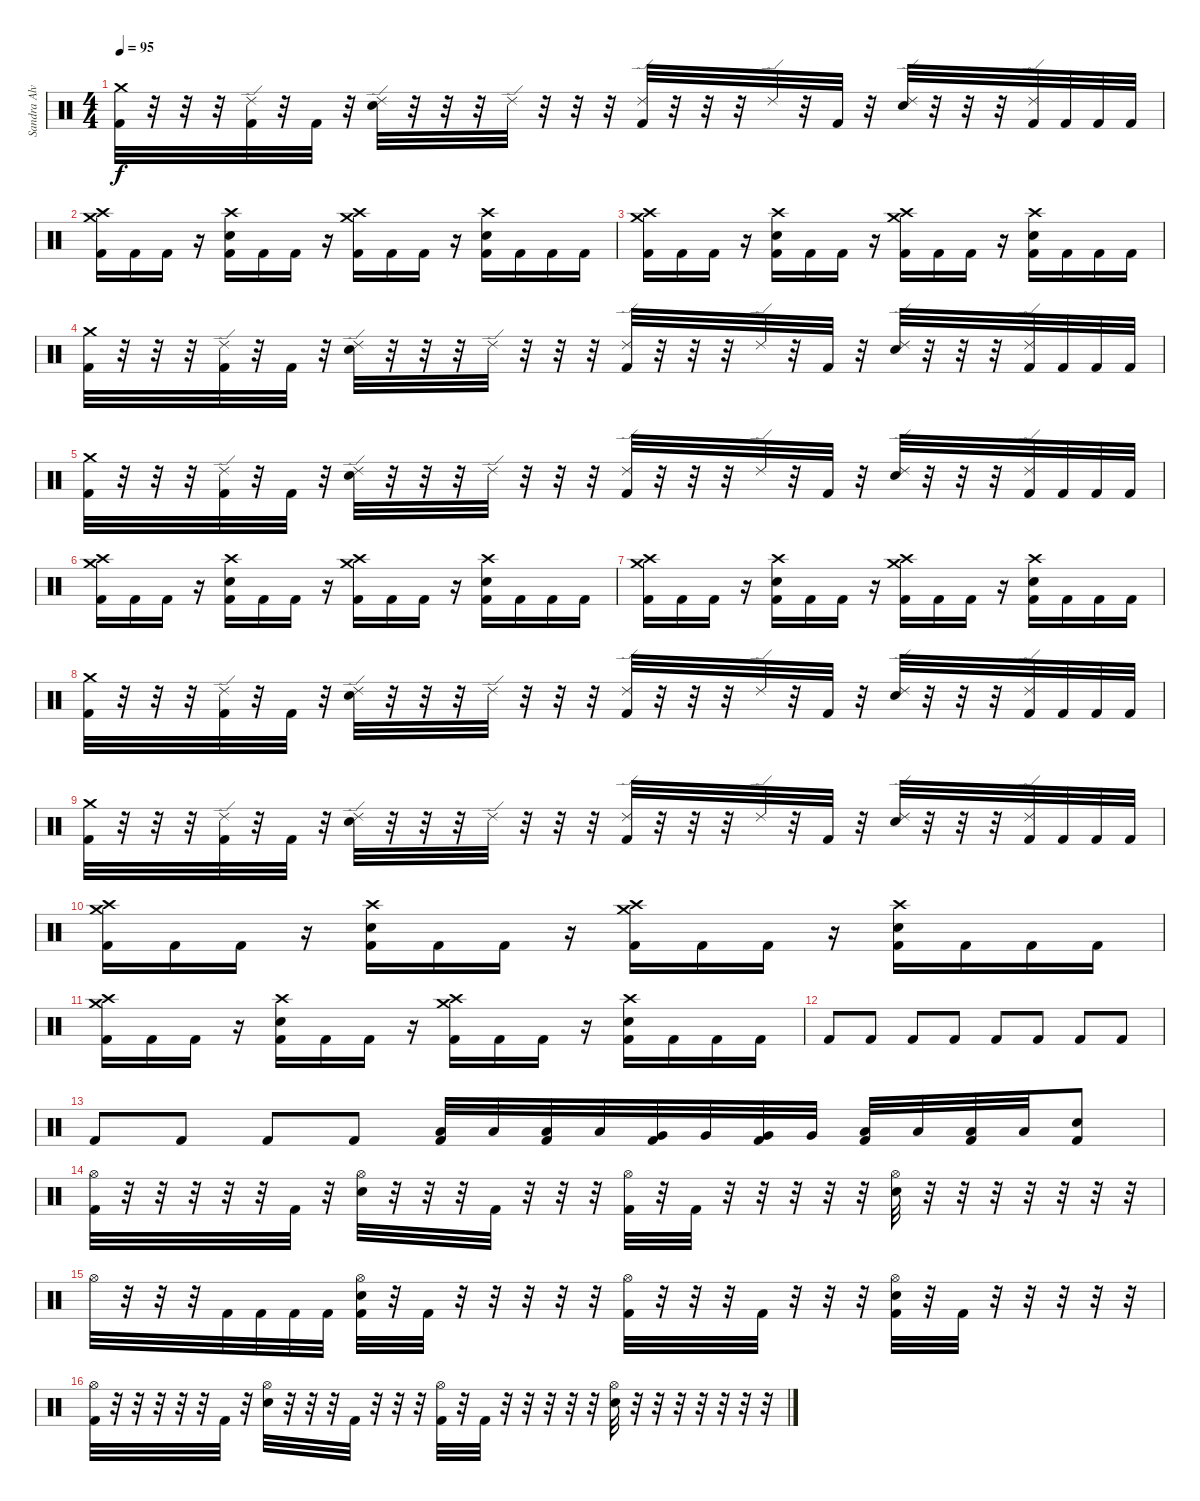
\track ("Sandra Alvarenga" "Sandra Alv") {instrument percussion}
\staff
\articulation defaults
\ts (4 4)
\tempo 95
\clef neutral
\ks c
("Crash medium (hit)" "Kick (hit) 2").32{dy f} r.32 r.32 r.32 ("Ride (edge) 2" "Kick (hit) 2").32 r.32 "Kick (hit) 2".32 r.32 ("Ride (edge) 2" "Electric Snare (hit)").32 r.32 r.32 r.32 "Ride (edge) 2".32 r.32 r.32 r.32 ("Ride (edge) 2" "Kick (hit) 2").32 r.32 r.32 r.32 "Ride (edge) 2".32 r.32 "Kick (hit) 2".32 r.32 ("Ride (edge) 2" "Electric Snare (hit)").32 r.32 r.32 r.32 ("Ride (edge) 2" "Kick (hit) 2").32 "Kick (hit) 2".32 "Kick (hit) 2".32 "Kick (hit) 2".32 |
("Crash medium (hit)" "Crash high (hit)" "Kick (hit) 2").16 "Kick (hit) 2".16 "Kick (hit) 2".16 r.16 ("Crash high (hit)" "Electric Snare (hit)" "Kick (hit) 2").16 "Kick (hit) 2".16 "Kick (hit) 2".16 r.16 ("Crash medium (hit)" "Crash high (hit)" "Kick (hit) 2").16 "Kick (hit) 2".16 "Kick (hit) 2".16 r.16 ("Crash high (hit)" "Electric Snare (hit)" "Kick (hit) 2").16 "Kick (hit) 2".16 "Kick (hit) 2".16 "Kick (hit) 2".16 |
("Crash medium (hit)" "Crash high (hit)" "Kick (hit) 2").16 "Kick (hit) 2".16 "Kick (hit) 2".16 r.16 ("Crash high (hit)" "Electric Snare (hit)" "Kick (hit) 2").16 "Kick (hit) 2".16 "Kick (hit) 2".16 r.16 ("Crash medium (hit)" "Crash high (hit)" "Kick (hit) 2").16 "Kick (hit) 2".16 "Kick (hit) 2".16 r.16 ("Crash high (hit)" "Electric Snare (hit)" "Kick (hit) 2").16 "Kick (hit) 2".16 "Kick (hit) 2".16 "Kick (hit) 2".16 |
("Crash medium (hit)" "Kick (hit) 2").32 r.32 r.32 r.32 ("Ride (edge) 2" "Kick (hit) 2").32 r.32 "Kick (hit) 2".32 r.32 ("Ride (edge) 2" "Electric Snare (hit)").32 r.32 r.32 r.32 "Ride (edge) 2".32 r.32 r.32 r.32 ("Ride (edge) 2" "Kick (hit) 2").32 r.32 r.32 r.32 "Ride (edge) 2".32 r.32 "Kick (hit) 2".32 r.32 ("Ride (edge) 2" "Electric Snare (hit)").32 r.32 r.32 r.32 ("Ride (edge) 2" "Kick (hit) 2").32 "Kick (hit) 2".32 "Kick (hit) 2".32 "Kick (hit) 2".32 |
("Crash medium (hit)" "Kick (hit) 2").32 r.32 r.32 r.32 ("Ride (edge) 2" "Kick (hit) 2").32 r.32 "Kick (hit) 2".32 r.32 ("Ride (edge) 2" "Electric Snare (hit)").32 r.32 r.32 r.32 "Ride (edge) 2".32 r.32 r.32 r.32 ("Ride (edge) 2" "Kick (hit) 2").32 r.32 r.32 r.32 "Ride (edge) 2".32 r.32 "Kick (hit) 2".32 r.32 ("Ride (edge) 2" "Electric Snare (hit)").32 r.32 r.32 r.32 ("Ride (edge) 2" "Kick (hit) 2").32 "Kick (hit) 2".32 "Kick (hit) 2".32 "Kick (hit) 2".32 |
("Crash medium (hit)" "Crash high (hit)" "Kick (hit) 2").16 "Kick (hit) 2".16 "Kick (hit) 2".16 r.16 ("Crash high (hit)" "Electric Snare (hit)" "Kick (hit) 2").16 "Kick (hit) 2".16 "Kick (hit) 2".16 r.16 ("Crash medium (hit)" "Crash high (hit)" "Kick (hit) 2").16 "Kick (hit) 2".16 "Kick (hit) 2".16 r.16 ("Crash high (hit)" "Electric Snare (hit)" "Kick (hit) 2").16 "Kick (hit) 2".16 "Kick (hit) 2".16 "Kick (hit) 2".16 |
("Crash medium (hit)" "Crash high (hit)" "Kick (hit) 2").16 "Kick (hit) 2".16 "Kick (hit) 2".16 r.16 ("Crash high (hit)" "Electric Snare (hit)" "Kick (hit) 2").16 "Kick (hit) 2".16 "Kick (hit) 2".16 r.16 ("Crash medium (hit)" "Crash high (hit)" "Kick (hit) 2").16 "Kick (hit) 2".16 "Kick (hit) 2".16 r.16 ("Crash high (hit)" "Electric Snare (hit)" "Kick (hit) 2").16 "Kick (hit) 2".16 "Kick (hit) 2".16 "Kick (hit) 2".16 |
("Crash medium (hit)" "Kick (hit) 2").32 r.32 r.32 r.32 ("Ride (edge) 2" "Kick (hit) 2").32 r.32 "Kick (hit) 2".32 r.32 ("Ride (edge) 2" "Electric Snare (hit)").32 r.32 r.32 r.32 "Ride (edge) 2".32 r.32 r.32 r.32 ("Ride (edge) 2" "Kick (hit) 2").32 r.32 r.32 r.32 "Ride (edge) 2".32 r.32 "Kick (hit) 2".32 r.32 ("Ride (edge) 2" "Electric Snare (hit)").32 r.32 r.32 r.32 ("Ride (edge) 2" "Kick (hit) 2").32 "Kick (hit) 2".32 "Kick (hit) 2".32 "Kick (hit) 2".32 |
("Crash medium (hit)" "Kick (hit) 2").32 r.32 r.32 r.32 ("Ride (edge) 2" "Kick (hit) 2").32 r.32 "Kick (hit) 2".32 r.32 ("Ride (edge) 2" "Electric Snare (hit)").32 r.32 r.32 r.32 "Ride (edge) 2".32 r.32 r.32 r.32 ("Ride (edge) 2" "Kick (hit) 2").32 r.32 r.32 r.32 "Ride (edge) 2".32 r.32 "Kick (hit) 2".32 r.32 ("Ride (edge) 2" "Electric Snare (hit)").32 r.32 r.32 r.32 ("Ride (edge) 2" "Kick (hit) 2").32 "Kick (hit) 2".32 "Kick (hit) 2".32 "Kick (hit) 2".32 |
("Crash medium (hit)" "Crash high (hit)" "Kick (hit) 2").16 "Kick (hit) 2".16 "Kick (hit) 2".16 r.16 ("Crash high (hit)" "Electric Snare (hit)" "Kick (hit) 2").16 "Kick (hit) 2".16 "Kick (hit) 2".16 r.16 ("Crash medium (hit)" "Crash high (hit)" "Kick (hit) 2").16 "Kick (hit) 2".16 "Kick (hit) 2".16 r.16 ("Crash high (hit)" "Electric Snare (hit)" "Kick (hit) 2").16 "Kick (hit) 2".16 "Kick (hit) 2".16 "Kick (hit) 2".16 |
("Crash medium (hit)" "Crash high (hit)" "Kick (hit) 2").16 "Kick (hit) 2".16 "Kick (hit) 2".16 r.16 ("Crash high (hit)" "Electric Snare (hit)" "Kick (hit) 2").16 "Kick (hit) 2".16 "Kick (hit) 2".16 r.16 ("Crash medium (hit)" "Crash high (hit)" "Kick (hit) 2").16 "Kick (hit) 2".16 "Kick (hit) 2".16 r.16 ("Crash high (hit)" "Electric Snare (hit)" "Kick (hit) 2").16 "Kick (hit) 2".16 "Kick (hit) 2".16 "Kick (hit) 2".16 |
"Kick (hit) 2".8 "Kick (hit) 2".8 "Kick (hit) 2".8 "Kick (hit) 2".8 "Kick (hit) 2".8 "Kick (hit) 2".8 "Kick (hit) 2".8 "Kick (hit) 2".8 |
"Kick (hit) 2".8 "Kick (hit) 2".8 "Kick (hit) 2".8 "Kick (hit) 2".8 ("Low Tom (hit)" "Kick (hit) 2").32 "Low Tom (hit)".32 ("Low Tom (hit)" "Kick (hit) 2").32 "Low Tom (hit)".32 ("Very Low Tom (hit)" "Kick (hit) 2").32 "Very Low Tom (hit)".32 ("Very Low Tom (hit)" "Kick (hit) 2").32 "Very Low Tom (hit)".32 ("Low Floor Tom (hit)" "Kick (hit) 2").32 "Low Floor Tom (hit)".32 ("Low Floor Tom (hit)" "Kick (hit) 2").32 "Low Floor Tom (hit)".32 ("Electric Snare (hit)" "Kick (hit) 2").8 |
("Hi-Hat (open)" "Kick (hit) 2").32 r.32 r.32 r.32 r.32 r.32 "Kick (hit) 2".32 r.32 ("Hi-Hat (open)" "Electric Snare (hit)").32 r.32 r.32 r.32 "Kick (hit) 2".32 r.32 r.32 r.32 ("Hi-Hat (open)" "Kick (hit) 2").32 r.32 "Kick (hit) 2".32 r.32 r.32 r.32 r.32 r.32 ("Hi-Hat (open)" "Electric Snare (hit)").32 r.32 r.32 r.32 r.32 r.32 r.32 r.32 |
"Hi-Hat (open)".32 r.32 r.32 r.32 "Kick (hit) 2".32 "Kick (hit) 2".32 "Kick (hit) 2".32 "Kick (hit) 2".32 ("Hi-Hat (open)" "Electric Snare (hit)" "Kick (hit) 2").32 r.32 "Kick (hit) 2".32 r.32 r.32 r.32 r.32 r.32 ("Hi-Hat (open)" "Kick (hit) 2").32 r.32 r.32 r.32 "Kick (hit) 2".32 r.32 r.32 r.32 ("Hi-Hat (open)" "Electric Snare (hit)" "Kick (hit) 2").32 r.32 "Kick (hit) 2".32 r.32 r.32 r.32 r.32 r.32 |
("Hi-Hat (open)" "Kick (hit) 2").32 r.32 r.32 r.32 r.32 r.32 "Kick (hit) 2".32 r.32 ("Hi-Hat (open)" "Electric Snare (hit)").32 r.32 r.32 r.32 "Kick (hit) 2".32 r.32 r.32 r.32 ("Hi-Hat (open)" "Kick (hit) 2").32 r.32 "Kick (hit) 2".32 r.32 r.32 r.32 r.32 r.32 ("Hi-Hat (open)" "Electric Snare (hit)").32 r.32 r.32 r.32 r.32 r.32 r.32 r.32
